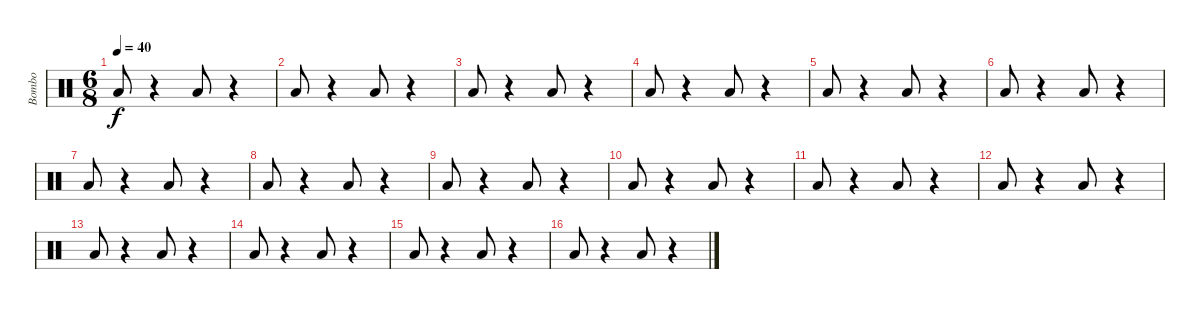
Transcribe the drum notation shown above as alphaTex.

\track ("Bombo" "Bombo") {instrument percussion}
\staff {score}
\articulation defaults
\ts (6 8)
\tempo 40
\clef neutral
\ks c "Low Floor Tom (hit)".8{dy f}
r.4 "Low Floor Tom (hit)".8 r.4 |
"Low Floor Tom (hit)".8 r.4 "Low Floor Tom (hit)".8 r.4 |
"Low Floor Tom (hit)".8 r.4 "Low Floor Tom (hit)".8 r.4 |
"Low Floor Tom (hit)".8 r.4 "Low Floor Tom (hit)".8 r.4 |
"Low Floor Tom (hit)".8 r.4 "Low Floor Tom (hit)".8 r.4 |
"Low Floor Tom (hit)".8 r.4 "Low Floor Tom (hit)".8 r.4 |
"Low Floor Tom (hit)".8 r.4 "Low Floor Tom (hit)".8 r.4 |
"Low Floor Tom (hit)".8 r.4 "Low Floor Tom (hit)".8 r.4 |
"Low Floor Tom (hit)".8 r.4 "Low Floor Tom (hit)".8 r.4 |
"Low Floor Tom (hit)".8 r.4 "Low Floor Tom (hit)".8 r.4 |
"Low Floor Tom (hit)".8 r.4 "Low Floor Tom (hit)".8 r.4 |
"Low Floor Tom (hit)".8 r.4 "Low Floor Tom (hit)".8 r.4 |
"Low Floor Tom (hit)".8 r.4 "Low Floor Tom (hit)".8 r.4 |
"Low Floor Tom (hit)".8 r.4 "Low Floor Tom (hit)".8 r.4 |
"Low Floor Tom (hit)".8 r.4 "Low Floor Tom (hit)".8 r.4 |
"Low Floor Tom (hit)".8 r.4 "Low Floor Tom (hit)".8 r.4
